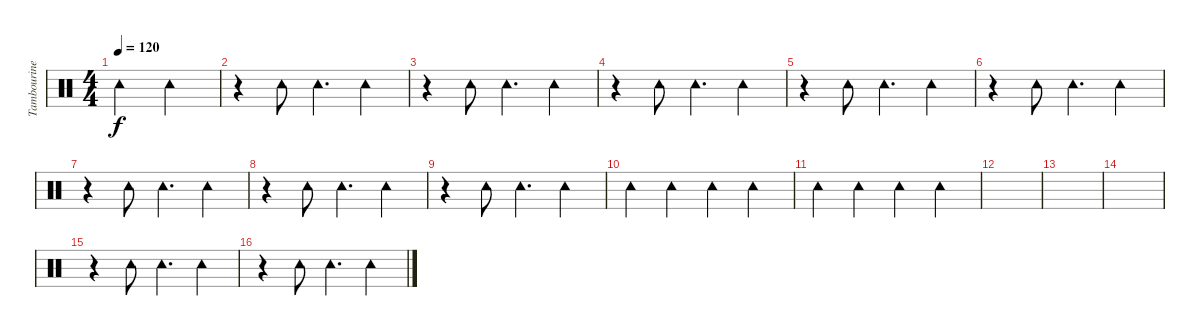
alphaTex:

\track ("Tambourine" "Tambourine") {instrument percussion}
\staff {score}
\articulation defaults
\ts (4 4)
\tempo 120
\clef neutral
\ks c "Tambourine (hit)".2{dy f} "Tambourine (hit)".2
|
r.4 "Tambourine (hit)".8 "Tambourine (hit)".4{d} "Tambourine (hit)".4 |
r.4 "Tambourine (hit)".8 "Tambourine (hit)".4{d} "Tambourine (hit)".4 |
r.4 "Tambourine (hit)".8 "Tambourine (hit)".4{d} "Tambourine (hit)".4 |
r.4 "Tambourine (hit)".8 "Tambourine (hit)".4{d} "Tambourine (hit)".4 |
r.4 "Tambourine (hit)".8 "Tambourine (hit)".4{d} "Tambourine (hit)".4 |
r.4 "Tambourine (hit)".8 "Tambourine (hit)".4{d} "Tambourine (hit)".4 |
r.4 "Tambourine (hit)".8 "Tambourine (hit)".4{d} "Tambourine (hit)".4 |
r.4 "Tambourine (hit)".8 "Tambourine (hit)".4{d} "Tambourine (hit)".4 |
"Tambourine (hit)".4 "Tambourine (hit)".4 "Tambourine (hit)".4 "Tambourine (hit)".4 |
"Tambourine (hit)".4 "Tambourine (hit)".4 "Tambourine (hit)".4 "Tambourine (hit)".4 |
|
|
|
r.4 "Tambourine (hit)".8 "Tambourine (hit)".4{d} "Tambourine (hit)".4 |
r.4 "Tambourine (hit)".8 "Tambourine (hit)".4{d} "Tambourine (hit)".4
